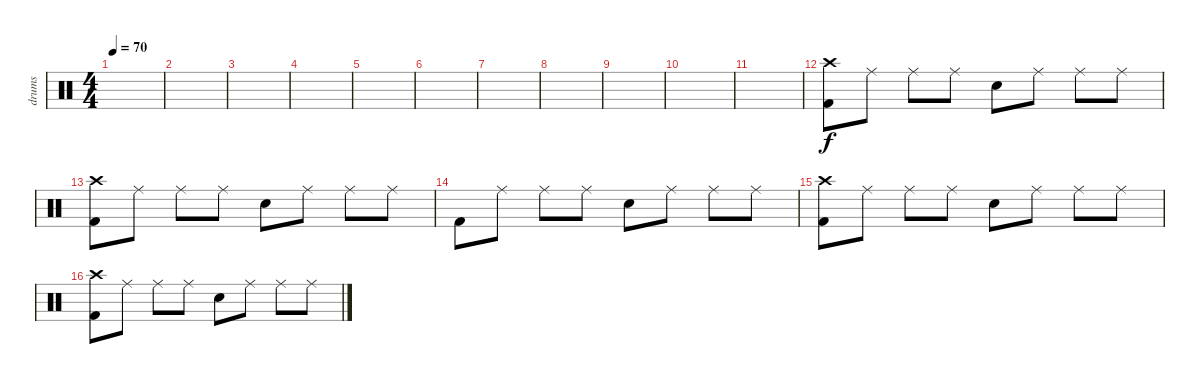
\track ("drums" "drums") {instrument percussion}
\staff {score}
\articulation defaults
\ts (4 4)
\tempo 70
\clef neutral
\ks c
|
|
|
|
|
|
|
|
|
|
|
("Crash high (hit)" "Kick (hit) 2").8 "Ride (middle)".8 "Ride (middle)".8 "Ride (middle)".8 "Snare (hit) 2".8 "Ride (middle)".8 "Ride (middle)".8 "Ride (middle)".8 |
("Crash high (hit)" "Kick (hit) 2").8 "Ride (middle)".8 "Ride (middle)".8 "Ride (middle)".8 "Snare (hit) 2".8 "Ride (middle)".8 "Ride (middle)".8 "Ride (middle)".8 |
"Kick (hit) 2".8 "Ride (middle)".8 "Ride (middle)".8 "Ride (middle)".8 "Snare (hit) 2".8 "Ride (middle)".8 "Ride (middle)".8 "Ride (middle)".8 |
("Crash high (hit)" "Kick (hit) 2").8 "Ride (middle)".8 "Ride (middle)".8 "Ride (middle)".8 "Snare (hit) 2".8 "Ride (middle)".8 "Ride (middle)".8 "Ride (middle)".8 |
("Crash high (hit)" "Kick (hit) 2").8 "Ride (middle)".8 "Ride (middle)".8 "Ride (middle)".8 "Snare (hit) 2".8 "Ride (middle)".8 "Ride (middle)".8 "Ride (middle)".8
